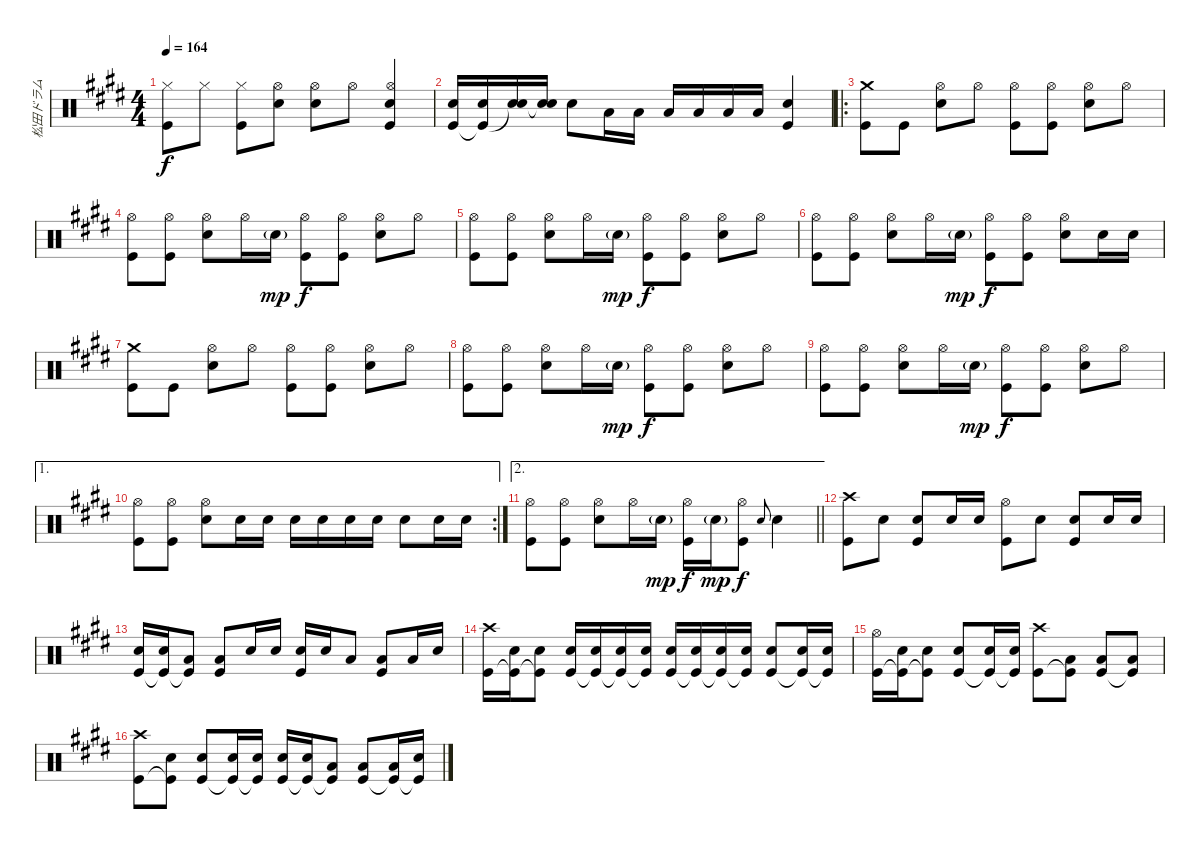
\track ("松田ドラム" "松田ドラム") {instrument percussion}
\staff {score}
\articulation defaults
\ts (4 4)
\tempo 164
\clef neutral
\ks e
("Hi-Hat (closed)"{t} "Kick (hit)").8{dy f} "Hi-Hat (closed)".8 ("Hi-Hat (closed)" "Kick (hit)").8 ("Hi-Hat (open)" "Snare (hit) 2").8 ("Hi-Hat (open)" "Snare (hit) 2").8 "Hi-Hat (open)".8 ("Hi-Hat (open)" "Snare (hit) 2" "Kick (hit)").4 |
("Snare (hit) 2" "Kick (hit)").16 ("Snare (hit) 2" "Kick (hit)"{t}).16 ("Snare (hit) 2" "Snare (hit)"{t}).16 ("Snare (hit) 2" "Snare (hit)"{t}).16 "Snare (hit) 2".8 "Low Tom (hit)".16 "Low Tom (hit)".16 "Low Tom (hit)".16 "Low Tom (hit)".16 "Low Tom (hit)".16 "Low Tom (hit)".16 ("Snare (hit) 2" "Kick (hit)").4 |
\ro
("Crash medium (hit)" "Kick (hit)").8 "Kick (hit)".8 ("Hi-Hat (open)" "Snare (hit) 2").8 "Hi-Hat (open)".8 ("Hi-Hat (open)" "Kick (hit)").8 ("Hi-Hat (open)" "Kick (hit)").8 ("Hi-Hat (open)" "Snare (hit) 2").8 "Hi-Hat (open)".8 |
("Hi-Hat (open)" "Kick (hit)").8 ("Hi-Hat (open)" "Kick (hit)").8 ("Hi-Hat (open)" "Snare (hit) 2").8 "Hi-Hat (open)".16 "Snare (hit) 2"{g}.16{dy mp} ("Hi-Hat (open)" "Kick (hit)").8{dy f} ("Hi-Hat (open)" "Kick (hit)").8 ("Hi-Hat (open)" "Snare (hit) 2").8 "Hi-Hat (open)".8 |
("Hi-Hat (open)" "Kick (hit)").8 ("Hi-Hat (open)" "Kick (hit)").8 ("Hi-Hat (open)" "Snare (hit) 2").8 "Hi-Hat (open)".16 "Snare (hit) 2"{g}.16{dy mp} ("Hi-Hat (open)" "Kick (hit)").8{dy f} ("Hi-Hat (open)" "Kick (hit)").8 ("Hi-Hat (open)" "Snare (hit) 2").8 "Hi-Hat (open)".8 |
("Hi-Hat (open)" "Kick (hit)").8 ("Hi-Hat (open)" "Kick (hit)").8 ("Hi-Hat (open)" "Snare (hit) 2").8 "Hi-Hat (open)".16 "Snare (hit) 2"{g}.16{dy mp} ("Hi-Hat (open)" "Kick (hit)").8{dy f} ("Hi-Hat (open)" "Kick (hit)").8 ("Hi-Hat (open)" "Snare (hit) 2").8 "Snare (hit) 2".16 "Snare (hit) 2".16 |
("Crash medium (hit)" "Kick (hit)").8 "Kick (hit)".8 ("Hi-Hat (open)" "Snare (hit) 2").8 "Hi-Hat (open)".8 ("Hi-Hat (open)" "Kick (hit)").8 ("Hi-Hat (open)" "Kick (hit)").8 ("Hi-Hat (open)" "Snare (hit) 2").8 "Hi-Hat (open)".8 |
("Hi-Hat (open)" "Kick (hit)").8 ("Hi-Hat (open)" "Kick (hit)").8 ("Hi-Hat (open)" "Snare (hit) 2").8 "Hi-Hat (open)".16 "Snare (hit) 2"{g}.16{dy mp} ("Hi-Hat (open)" "Kick (hit)").8{dy f} ("Hi-Hat (open)" "Kick (hit)").8 ("Hi-Hat (open)" "Snare (hit) 2").8 "Hi-Hat (open)".8 |
("Hi-Hat (open)" "Kick (hit)").8 ("Hi-Hat (open)" "Kick (hit)").8 ("Hi-Hat (open)" "Snare (hit) 2").8 "Hi-Hat (open)".16 "Snare (hit) 2"{g}.16{dy mp} ("Hi-Hat (open)" "Kick (hit)").8{dy f} ("Hi-Hat (open)" "Kick (hit)").8 ("Hi-Hat (open)" "Snare (hit) 2").8 "Hi-Hat (open)".8 |
\ae 1
\rc 2
("Hi-Hat (open)" "Kick (hit)").8 ("Hi-Hat (open)" "Kick (hit)").8 ("Hi-Hat (open)" "Snare (hit) 2").8 "Snare (hit) 2".16 "Snare (hit) 2".16 "Snare (hit) 2".16 "Snare (hit) 2".16 "Snare (hit) 2".16 "Snare (hit) 2".16 "Snare (hit) 2".8 "Snare (hit) 2".16 "Snare (hit) 2".16 |
\ae 2
\barLineRight lightlight
("Hi-Hat (open)" "Kick (hit)").8 ("Hi-Hat (open)" "Kick (hit)").8 ("Hi-Hat (open)" "Snare (hit) 2").8 "Hi-Hat (open)".16 "Snare (hit) 2"{g}.16{dy mp} ("Hi-Hat (open)" "Kick (hit)").16{dy f} "Snare (hit) 2"{g}.16{dy mp} ("Hi-Hat (open)" "Kick (hit)").8{dy f} "Snare (hit) 2".8{gr onbeat} "Snare (hit) 2".4 |
("Crash high (hit)" "Kick (hit)").8 "Snare (hit) 2".8 ("Snare (hit) 2" "Kick (hit)").8 "Snare (hit) 2".16 "Snare (hit) 2".16 ("Hi-Hat (open)" "Kick (hit)").8 "Snare (hit) 2".8 ("Snare (hit) 2" "Kick (hit)").8 "Snare (hit) 2".16 "Snare (hit) 2".16 |
("Snare (hit) 2" "Kick (hit)").16 ("Snare (hit) 2" "Kick (hit)"{t}).16 ("Low Tom (hit)" "Kick (hit)"{t}).8 ("Low Tom (hit)" "Kick (hit)").8 "Snare (hit) 2".16 "Snare (hit) 2".16 ("Snare (hit) 2" "Kick (hit)").16 "Snare (hit) 2".16 "Low Tom (hit)".8 ("Low Tom (hit)" "Kick (hit)").8 "Low Tom (hit)".16 "Snare (hit) 2".16 |
("Crash high (hit)" "Kick (hit)").16 ("Snare (hit) 2" "Kick (hit)"{t}).16 ("Snare (hit) 2" "Kick (hit)"{t}).8 ("Snare (hit) 2" "Kick (hit)").16 ("Snare (hit) 2" "Kick (hit)"{t}).16 ("Snare (hit) 2" "Kick (hit)"{t}).16 ("Snare (hit) 2" "Kick (hit)"{t}).16 ("Snare (hit) 2" "Kick (hit)").16 ("Snare (hit) 2" "Kick (hit)"{t}).16 ("Snare (hit) 2" "Kick (hit)"{t}).16 ("Snare (hit) 2" "Kick (hit)"{t}).16 ("Snare (hit) 2" "Kick (hit)").8 ("Snare (hit) 2" "Kick (hit)"{t}).16 ("Snare (hit) 2" "Kick (hit)"{t}).16 |
("Hi-Hat (open)" "Kick (hit)").16 ("Snare (hit) 2" "Kick (hit)"{t}).16 ("Snare (hit) 2" "Kick (hit)"{t}).8 ("Snare (hit) 2" "Kick (hit)").8 ("Snare (hit) 2" "Kick (hit)"{t}).16 ("Snare (hit) 2" "Kick (hit)"{t}).16 ("Crash high (hit)" "Kick (hit)").8 ("Low Tom (hit)" "Kick (hit)"{t}).8 ("Low Tom (hit)" "Kick (hit)").8 ("Low Tom (hit)" "Kick (hit)"{t}).8 |
("Crash high (hit)" "Kick (hit)").8 ("Snare (hit) 2" "Kick (hit)"{t}).8 ("Snare (hit) 2" "Kick (hit)").8 ("Snare (hit) 2" "Kick (hit)"{t}).16 ("Snare (hit) 2" "Kick (hit)"{t}).16 ("Snare (hit) 2" "Kick (hit)").16 ("Snare (hit) 2" "Kick (hit)"{t}).16 ("Low Tom (hit)" "Kick (hit)"{t}).8 ("Low Tom (hit)" "Kick (hit)").8 ("Low Tom (hit)" "Kick (hit)"{t}).16 ("Snare (hit) 2" "Kick (hit)"{t}).16
